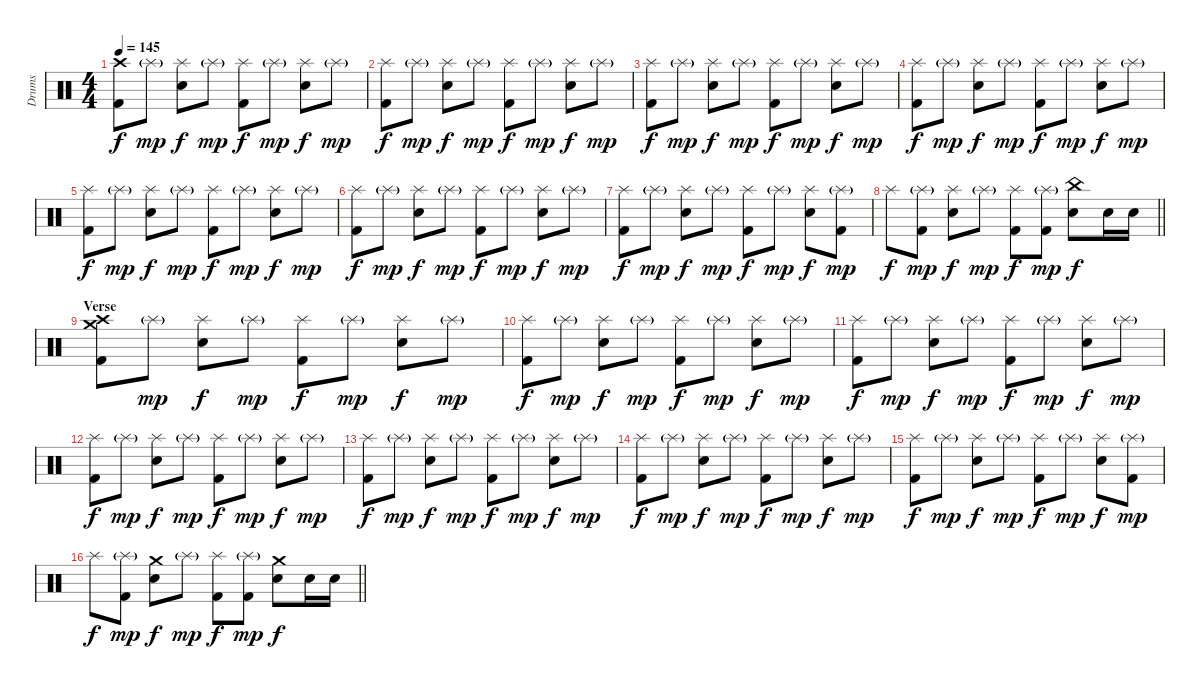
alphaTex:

\track ("Drums" "Drums") {instrument percussion}
\staff {score}
\articulation defaults
\ts (4 4)
\tempo 145
\clef neutral
\ks c
("Crash high (hit)" "Kick (hit) 2").8{dy f} "Splash (hit)"{g}.8{dy mp} ("Splash (hit)" "Snare (hit) 2").8{dy f} "Splash (hit)"{g}.8{dy mp} ("Splash (hit)" "Kick (hit) 2").8{dy f} "Splash (hit)"{g}.8{dy mp} ("Splash (hit)" "Snare (hit) 2").8{dy f} "Splash (hit)"{g}.8{dy mp} |
("Splash (hit)" "Kick (hit) 2").8{dy f} "Splash (hit)"{g}.8{dy mp} ("Splash (hit)" "Snare (hit) 2").8{dy f} "Splash (hit)"{g}.8{dy mp} ("Splash (hit)" "Kick (hit) 2").8{dy f} "Splash (hit)"{g}.8{dy mp} ("Splash (hit)" "Snare (hit) 2").8{dy f} "Splash (hit)"{g}.8{dy mp} |
("Splash (hit)" "Kick (hit) 2").8{dy f} "Splash (hit)"{g}.8{dy mp} ("Splash (hit)" "Snare (hit) 2").8{dy f} "Splash (hit)"{g}.8{dy mp} ("Splash (hit)" "Kick (hit) 2").8{dy f} "Splash (hit)"{g}.8{dy mp} ("Splash (hit)" "Snare (hit) 2").8{dy f} "Splash (hit)"{g}.8{dy mp} |
("Splash (hit)" "Kick (hit) 2").8{dy f} "Splash (hit)"{g}.8{dy mp} ("Splash (hit)" "Snare (hit) 2").8{dy f} "Splash (hit)"{g}.8{dy mp} ("Splash (hit)" "Kick (hit) 2").8{dy f} "Splash (hit)"{g}.8{dy mp} ("Splash (hit)" "Snare (hit) 2").8{dy f} "Splash (hit)"{g}.8{dy mp} |
("Splash (hit)" "Kick (hit) 2").8{dy f} "Splash (hit)"{g}.8{dy mp} ("Splash (hit)" "Snare (hit) 2").8{dy f} "Splash (hit)"{g}.8{dy mp} ("Splash (hit)" "Kick (hit) 2").8{dy f} "Splash (hit)"{g}.8{dy mp} ("Splash (hit)" "Snare (hit) 2").8{dy f} "Splash (hit)"{g}.8{dy mp} |
("Splash (hit)" "Kick (hit) 2").8{dy f} "Splash (hit)"{g}.8{dy mp} ("Splash (hit)" "Snare (hit) 2").8{dy f} "Splash (hit)"{g}.8{dy mp} ("Splash (hit)" "Kick (hit) 2").8{dy f} "Splash (hit)"{g}.8{dy mp} ("Splash (hit)" "Snare (hit) 2").8{dy f} "Splash (hit)"{g}.8{dy mp} |
("Splash (hit)" "Kick (hit) 2").8{dy f} "Splash (hit)"{g}.8{dy mp} ("Splash (hit)" "Snare (hit) 2").8{dy f} "Splash (hit)"{g}.8{dy mp} ("Splash (hit)" "Kick (hit) 2").8{dy f} "Splash (hit)"{g}.8{dy mp} ("Splash (hit)" "Snare (hit) 2").8{dy f} ("Splash (hit)"{g} "Kick (hit) 2").8{dy mp} |
\barLineRight lightlight "Splash (hit)".8{dy f}
("Splash (hit)"{g} "Kick (hit) 2").8{dy mp} ("Splash (hit)" "Snare (hit) 2").8{dy f} "Splash (hit)"{g}.8{dy mp} ("Splash (hit)" "Kick (hit) 2").8{dy f} ("Splash (hit)"{g} "Kick (hit) 2").8{dy mp} ("China (hit)" "Snare (hit) 2").8{dy f} "Snare (hit) 2".16 "Snare (hit) 2".16 |
\section ("" "Verse")
("Crash high (hit)" "Crash medium (hit)" "Kick (hit) 2").8 "Splash (hit)"{g}.8{dy mp} ("Splash (hit)" "Snare (hit) 2").8{dy f} "Splash (hit)"{g}.8{dy mp} ("Splash (hit)" "Kick (hit) 2").8{dy f} "Splash (hit)"{g}.8{dy mp} ("Splash (hit)" "Snare (hit) 2").8{dy f} "Splash (hit)"{g}.8{dy mp} |
("Splash (hit)" "Kick (hit) 2").8{dy f} "Splash (hit)"{g}.8{dy mp} ("Splash (hit)" "Snare (hit) 2").8{dy f} "Splash (hit)"{g}.8{dy mp} ("Splash (hit)" "Kick (hit) 2").8{dy f} "Splash (hit)"{g}.8{dy mp} ("Splash (hit)" "Snare (hit) 2").8{dy f} "Splash (hit)"{g}.8{dy mp} |
("Splash (hit)" "Kick (hit) 2").8{dy f} "Splash (hit)"{g}.8{dy mp} ("Splash (hit)" "Snare (hit) 2").8{dy f} "Splash (hit)"{g}.8{dy mp} ("Splash (hit)" "Kick (hit) 2").8{dy f} "Splash (hit)"{g}.8{dy mp} ("Splash (hit)" "Snare (hit) 2").8{dy f} "Splash (hit)"{g}.8{dy mp} |
("Splash (hit)" "Kick (hit) 2").8{dy f} "Splash (hit)"{g}.8{dy mp} ("Splash (hit)" "Snare (hit) 2").8{dy f} "Splash (hit)"{g}.8{dy mp} ("Splash (hit)" "Kick (hit) 2").8{dy f} "Splash (hit)"{g}.8{dy mp} ("Splash (hit)" "Snare (hit) 2").8{dy f} "Splash (hit)"{g}.8{dy mp} |
("Splash (hit)" "Kick (hit) 2").8{dy f} "Splash (hit)"{g}.8{dy mp} ("Splash (hit)" "Snare (hit) 2").8{dy f} "Splash (hit)"{g}.8{dy mp} ("Splash (hit)" "Kick (hit) 2").8{dy f} "Splash (hit)"{g}.8{dy mp} ("Splash (hit)" "Snare (hit) 2").8{dy f} "Splash (hit)"{g}.8{dy mp} |
("Splash (hit)" "Kick (hit) 2").8{dy f} "Splash (hit)"{g}.8{dy mp} ("Splash (hit)" "Snare (hit) 2").8{dy f} "Splash (hit)"{g}.8{dy mp} ("Splash (hit)" "Kick (hit) 2").8{dy f} "Splash (hit)"{g}.8{dy mp} ("Splash (hit)" "Snare (hit) 2").8{dy f} "Splash (hit)"{g}.8{dy mp} |
("Splash (hit)" "Kick (hit) 2").8{dy f} "Splash (hit)"{g}.8{dy mp} ("Splash (hit)" "Snare (hit) 2").8{dy f} "Splash (hit)"{g}.8{dy mp} ("Splash (hit)" "Kick (hit) 2").8{dy f} "Splash (hit)"{g}.8{dy mp} ("Splash (hit)" "Snare (hit) 2").8{dy f} ("Splash (hit)"{g} "Kick (hit) 2").8{dy mp} |
\barLineRight lightlight "Splash (hit)".8{dy f}
("Splash (hit)"{g} "Kick (hit) 2").8{dy mp} ("Crash medium (hit)" "Snare (hit) 2").8{dy f} "Splash (hit)"{g}.8{dy mp} ("Splash (hit)" "Kick (hit) 2").8{dy f} ("Splash (hit)"{g} "Kick (hit) 2").8{dy mp} ("Crash medium (hit)" "Snare (hit) 2").8{dy f} "Snare (hit) 2".16 "Snare (hit) 2".16
